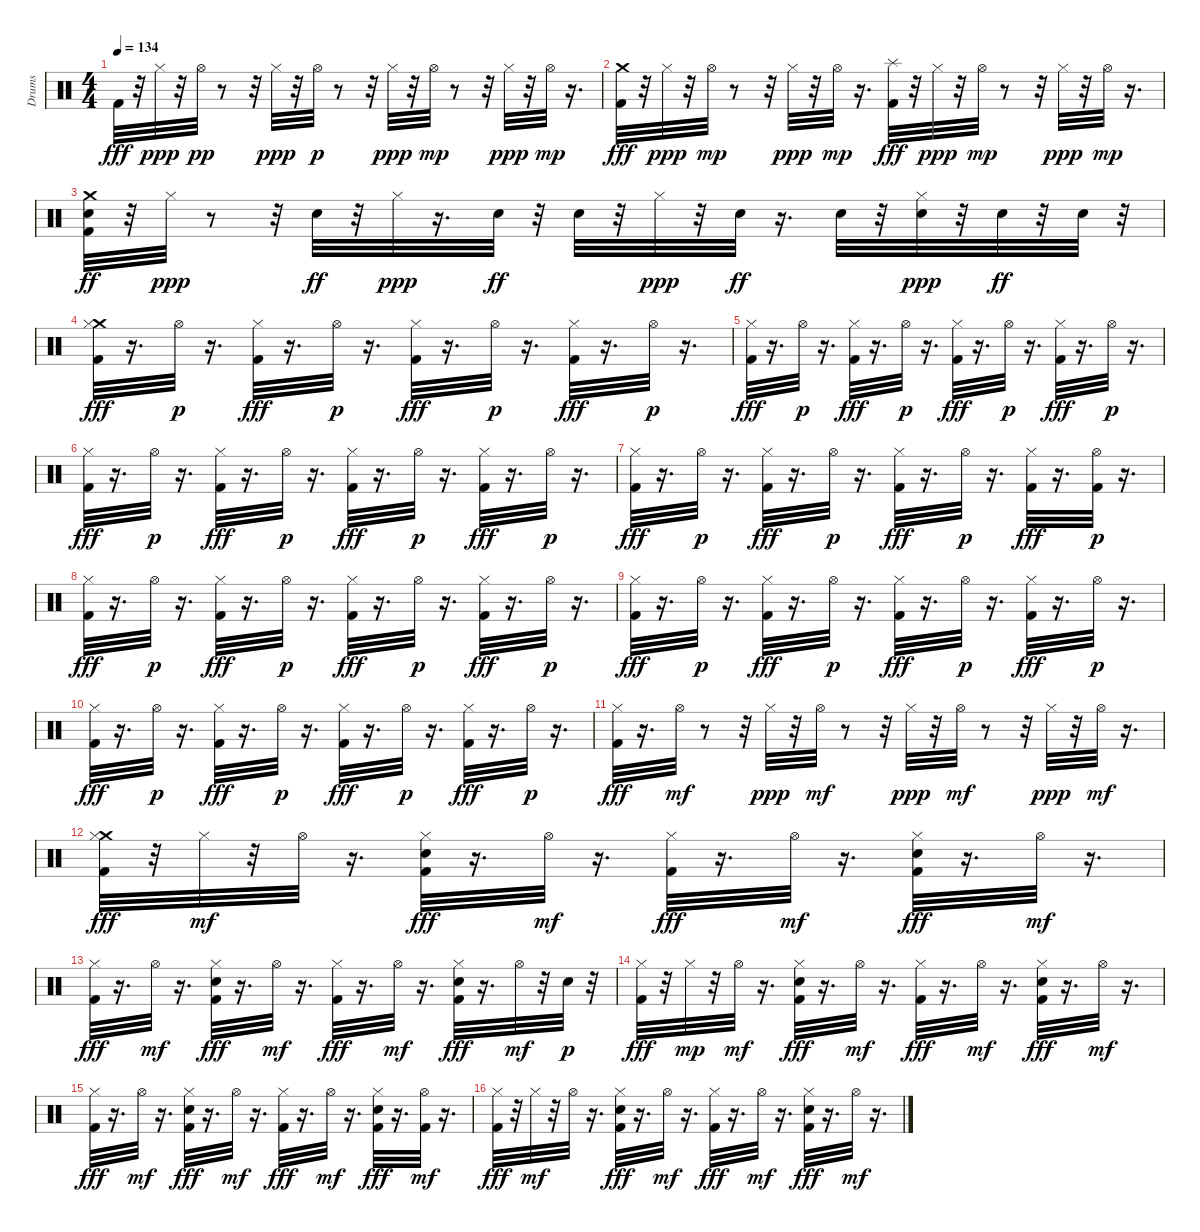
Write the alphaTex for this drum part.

\track ("Drums" "Drums") {instrument percussion}
\staff {score}
\articulation defaults
\ts (4 4)
\tempo 134
\clef neutral
\ks c "Kick (hit) 2".32{dy fff}
r.32 "Hi-Hat (closed)".32{dy ppp} r.32 "Hi-Hat (open)".32{dy pp} r.8 r.32 "Hi-Hat (closed)".32{dy ppp} r.32 "Hi-Hat (open)".32{dy p} r.8 r.32 "Hi-Hat (closed)".32{dy ppp} r.32 "Hi-Hat (open)".32{dy mp} r.8 r.32 "Hi-Hat (closed)".32{dy ppp} r.32 "Hi-Hat (open)".32{dy mp} r.16{d} |
("Kick (hit) 2" "Crash medium (hit)").32{dy fff} r.32 "Hi-Hat (closed)".32{dy ppp} r.32 "Hi-Hat (open)".32{dy mp} r.8 r.32 "Hi-Hat (closed)".32{dy ppp} r.32 "Hi-Hat (open)".32{dy mp} r.16{d} ("Kick (hit) 2" "Splash (hit)").32{dy fff} r.32 "Hi-Hat (closed)".32{dy ppp} r.32 "Hi-Hat (open)".32{dy mp} r.8 r.32 "Hi-Hat (closed)".32{dy ppp} r.32 "Hi-Hat (open)".32{dy mp} r.16{d} |
("Electric Snare (hit)" "Kick (hit) 2" "Crash medium (hit)").32{dy ff} r.32 "Hi-Hat (closed)".32{dy ppp} r.8 r.32 "Electric Snare (hit)".32{dy ff} r.32 "Hi-Hat (closed)".32{dy ppp} r.16{d} "Electric Snare (hit)".32{dy ff} r.32 "Electric Snare (hit)".32 r.32 "Hi-Hat (closed)".32{dy ppp} r.32 "Electric Snare (hit)".32{dy ff} r.16{d} "Electric Snare (hit)".32 r.32 ("Electric Snare (hit)" "Hi-Hat (closed)").32{dy ppp} r.32 "Electric Snare (hit)".32{dy ff} r.32 "Electric Snare (hit)".32 r.32 |
("Crash medium (hit)" "Kick (hit) 2" "Hi-Hat (closed)").32{dy fff} r.16{d} "Hi-Hat (open)".32{dy p} r.16{d} ("Kick (hit) 2" "Hi-Hat (closed)").32{dy fff} r.16{d} "Hi-Hat (open)".32{dy p} r.16{d} ("Kick (hit) 2" "Hi-Hat (closed)").32{dy fff} r.16{d} "Hi-Hat (open)".32{dy p} r.16{d} ("Kick (hit) 2" "Hi-Hat (closed)").32{dy fff} r.16{d} "Hi-Hat (open)".32{dy p} r.16{d} |
("Kick (hit) 2" "Hi-Hat (closed)").32{dy fff} r.16{d} "Hi-Hat (open)".32{dy p} r.16{d} ("Kick (hit) 2" "Hi-Hat (closed)").32{dy fff} r.16{d} "Hi-Hat (open)".32{dy p} r.16{d} ("Kick (hit) 2" "Hi-Hat (closed)").32{dy fff} r.16{d} "Hi-Hat (open)".32{dy p} r.16{d} ("Kick (hit) 2" "Hi-Hat (closed)").32{dy fff} r.16{d} "Hi-Hat (open)".32{dy p} r.16{d} |
("Kick (hit) 2" "Hi-Hat (closed)").32{dy fff} r.16{d} "Hi-Hat (open)".32{dy p} r.16{d} ("Kick (hit) 2" "Hi-Hat (closed)").32{dy fff} r.16{d} "Hi-Hat (open)".32{dy p} r.16{d} ("Kick (hit) 2" "Hi-Hat (closed)").32{dy fff} r.16{d} "Hi-Hat (open)".32{dy p} r.16{d} ("Kick (hit) 2" "Hi-Hat (closed)").32{dy fff} r.16{d} "Hi-Hat (open)".32{dy p} r.16{d} |
("Kick (hit) 2" "Hi-Hat (closed)").32{dy fff} r.16{d} "Hi-Hat (open)".32{dy p} r.16{d} ("Kick (hit) 2" "Hi-Hat (closed)").32{dy fff} r.16{d} "Hi-Hat (open)".32{dy p} r.16{d} ("Kick (hit) 2" "Hi-Hat (closed)").32{dy fff} r.16{d} "Hi-Hat (open)".32{dy p} r.16{d} ("Kick (hit) 2" "Hi-Hat (closed)").32{dy fff} r.16{d} ("Kick (hit) 2" "Hi-Hat (open)").32{dy p} r.16{d} |
("Kick (hit) 2" "Hi-Hat (closed)").32{dy fff} r.16{d} "Hi-Hat (open)".32{dy p} r.16{d} ("Kick (hit) 2" "Hi-Hat (closed)").32{dy fff} r.16{d} "Hi-Hat (open)".32{dy p} r.16{d} ("Kick (hit) 2" "Hi-Hat (closed)").32{dy fff} r.16{d} "Hi-Hat (open)".32{dy p} r.16{d} ("Kick (hit) 2" "Hi-Hat (closed)").32{dy fff} r.16{d} "Hi-Hat (open)".32{dy p} r.16{d} |
("Kick (hit) 2" "Hi-Hat (closed)").32{dy fff} r.16{d} "Hi-Hat (open)".32{dy p} r.16{d} ("Kick (hit) 2" "Hi-Hat (closed)").32{dy fff} r.16{d} "Hi-Hat (open)".32{dy p} r.16{d} ("Kick (hit) 2" "Hi-Hat (closed)").32{dy fff} r.16{d} "Hi-Hat (open)".32{dy p} r.16{d} ("Kick (hit) 2" "Hi-Hat (closed)").32{dy fff} r.16{d} "Hi-Hat (open)".32{dy p} r.16{d} |
("Kick (hit) 2" "Hi-Hat (closed)").32{dy fff} r.16{d} "Hi-Hat (open)".32{dy p} r.16{d} ("Kick (hit) 2" "Hi-Hat (closed)").32{dy fff} r.16{d} "Hi-Hat (open)".32{dy p} r.16{d} ("Kick (hit) 2" "Hi-Hat (closed)").32{dy fff} r.16{d} "Hi-Hat (open)".32{dy p} r.16{d} ("Kick (hit) 2" "Hi-Hat (closed)").32{dy fff} r.16{d} "Hi-Hat (open)".32{dy p} r.16{d} |
("Kick (hit) 2" "Hi-Hat (closed)").32{dy fff} r.16{d} "Hi-Hat (open)".32{dy mf} r.8 r.32 "Hi-Hat (closed)".32{dy ppp} r.32 "Hi-Hat (open)".32{dy mf} r.8 r.32 "Hi-Hat (closed)".32{dy ppp} r.32 "Hi-Hat (open)".32{dy mf} r.8 r.32 "Hi-Hat (closed)".32{dy ppp} r.32 "Hi-Hat (open)".32{dy mf} r.16{d} |
("Crash medium (hit)" "Kick (hit) 2" "Hi-Hat (closed)").32{dy fff} r.32 "Hi-Hat (closed)".32{dy mf} r.32 "Hi-Hat (open)".32 r.16{d} ("Electric Snare (hit)" "Kick (hit) 2" "Hi-Hat (closed)").32{dy fff} r.16{d} "Hi-Hat (open)".32{dy mf} r.16{d} ("Kick (hit) 2" "Hi-Hat (closed)").32{dy fff} r.16{d} "Hi-Hat (open)".32{dy mf} r.16{d} ("Electric Snare (hit)" "Kick (hit) 2" "Hi-Hat (closed)").32{dy fff} r.16{d} "Hi-Hat (open)".32{dy mf} r.16{d} |
("Kick (hit) 2" "Hi-Hat (closed)").32{dy fff} r.16{d} "Hi-Hat (open)".32{dy mf} r.16{d} ("Electric Snare (hit)" "Kick (hit) 2" "Hi-Hat (closed)").32{dy fff} r.16{d} "Hi-Hat (open)".32{dy mf} r.16{d} ("Kick (hit) 2" "Hi-Hat (closed)").32{dy fff} r.16{d} "Hi-Hat (open)".32{dy mf} r.16{d} ("Electric Snare (hit)" "Kick (hit) 2" "Hi-Hat (closed)").32{dy fff} r.16{d} "Hi-Hat (open)".32{dy mf} r.32 "Electric Snare (hit)".32{dy p} r.32 |
("Kick (hit) 2" "Hi-Hat (closed)").32{dy fff} r.32 "Hi-Hat (closed)".32{dy mp} r.32 "Hi-Hat (open)".32{dy mf} r.16{d} ("Electric Snare (hit)" "Kick (hit) 2" "Hi-Hat (closed)").32{dy fff} r.16{d} "Hi-Hat (open)".32{dy mf} r.16{d} ("Kick (hit) 2" "Hi-Hat (closed)").32{dy fff} r.16{d} "Hi-Hat (open)".32{dy mf} r.16{d} ("Electric Snare (hit)" "Kick (hit) 2" "Hi-Hat (closed)").32{dy fff} r.16{d} "Hi-Hat (open)".32{dy mf} r.16{d} |
("Kick (hit) 2" "Hi-Hat (closed)").32{dy fff} r.16{d} "Hi-Hat (open)".32{dy mf} r.16{d} ("Electric Snare (hit)" "Kick (hit) 2" "Hi-Hat (closed)").32{dy fff} r.16{d} "Hi-Hat (open)".32{dy mf} r.16{d} ("Kick (hit) 2" "Hi-Hat (closed)").32{dy fff} r.16{d} "Hi-Hat (open)".32{dy mf} r.16{d} ("Electric Snare (hit)" "Kick (hit) 2" "Hi-Hat (closed)").32{dy fff} r.16{d} ("Kick (hit) 2" "Hi-Hat (open)").32{dy mf} r.16{d} |
("Kick (hit) 2" "Hi-Hat (closed)").32{dy fff} r.32 "Hi-Hat (closed)".32{dy mf} r.32 "Hi-Hat (open)".32 r.16{d} ("Electric Snare (hit)" "Kick (hit) 2" "Hi-Hat (closed)").32{dy fff} r.16{d} "Hi-Hat (open)".32{dy mf} r.16{d} ("Kick (hit) 2" "Hi-Hat (closed)").32{dy fff} r.16{d} "Hi-Hat (open)".32{dy mf} r.16{d} ("Electric Snare (hit)" "Kick (hit) 2" "Hi-Hat (closed)").32{dy fff} r.16{d} "Hi-Hat (open)".32{dy mf} r.16{d}
